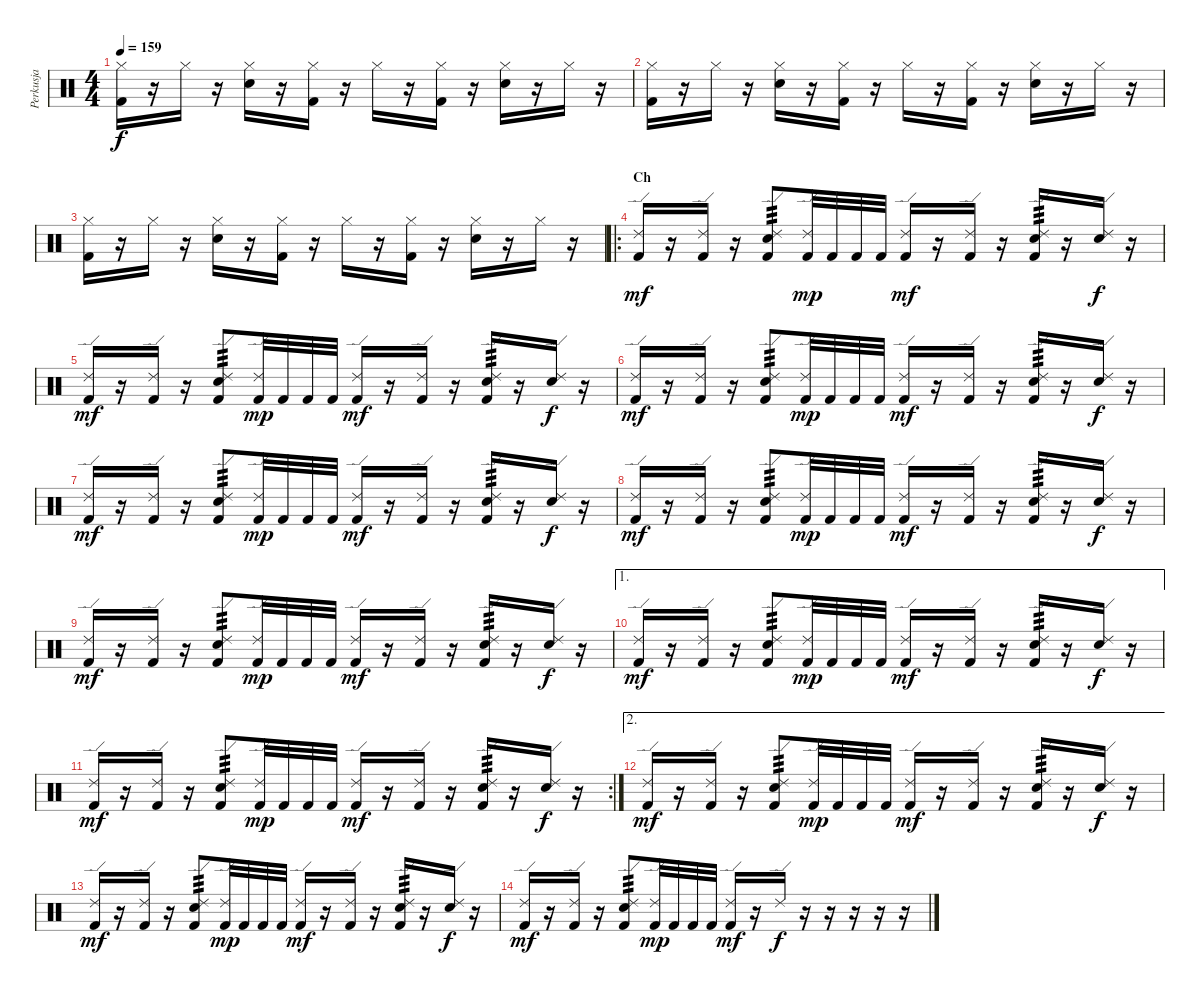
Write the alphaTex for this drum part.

\track ("Perkusja" "Perkusja") {instrument percussion}
\staff {score}
\articulation defaults
\ts (4 4)
\tempo 159
\clef neutral
\ks c
("Hi-Hat (closed)" "Kick (hit) 2").16{dy f} r.16 "Hi-Hat (closed)".16 r.16 ("Hi-Hat (closed)" "Electric Snare (hit)").16 r.16 ("Hi-Hat (closed)" "Kick (hit) 2").16 r.16 "Hi-Hat (closed)".16 r.16 ("Hi-Hat (closed)" "Kick (hit) 2").16 r.16 ("Hi-Hat (closed)" "Electric Snare (hit)").16 r.16 "Hi-Hat (closed)".16 r.16 |
("Hi-Hat (closed)" "Kick (hit) 2").16 r.16 "Hi-Hat (closed)".16 r.16 ("Hi-Hat (closed)" "Electric Snare (hit)").16 r.16 ("Hi-Hat (closed)" "Kick (hit) 2").16 r.16 "Hi-Hat (closed)".16 r.16 ("Hi-Hat (closed)" "Kick (hit) 2").16 r.16 ("Hi-Hat (closed)" "Electric Snare (hit)").16 r.16 "Hi-Hat (closed)".16 r.16 |
("Hi-Hat (closed)" "Kick (hit) 2").16 r.16 "Hi-Hat (closed)".16 r.16 ("Hi-Hat (closed)" "Electric Snare (hit)").16 r.16 ("Hi-Hat (closed)" "Kick (hit) 2").16 r.16 "Hi-Hat (closed)".16 r.16 ("Hi-Hat (closed)" "Kick (hit) 2").16 r.16 ("Hi-Hat (closed)" "Electric Snare (hit)").16 r.16 "Hi-Hat (closed)".16 r.16 |
\ro
\section ("" "Ch")
("Ride (edge) 2" "Kick (hit) 2").16{dy mf} r.16 ("Ride (edge) 2" "Kick (hit) 2").16 r.16 ("Ride (edge) 2" "Electric Snare (hit)" "Kick (hit) 2").8{tp 3} ("Ride (edge) 2" "Kick (hit) 2").32{dy mp} "Kick (hit) 2".32 "Kick (hit) 2".32 "Kick (hit) 2".32 ("Ride (edge) 2" "Kick (hit) 2").16{dy mf} r.16 ("Ride (edge) 2" "Kick (hit) 2").16 r.16 ("Ride (edge) 2" "Electric Snare (hit)" "Kick (hit) 2").16{tp 3} r.16 ("Ride (edge) 2" "Electric Snare (hit)").16{dy f} r.16 |
("Ride (edge) 2" "Kick (hit) 2").16{dy mf} r.16 ("Ride (edge) 2" "Kick (hit) 2").16 r.16 ("Ride (edge) 2" "Electric Snare (hit)" "Kick (hit) 2").8{tp 3} ("Ride (edge) 2" "Kick (hit) 2").32{dy mp} "Kick (hit) 2".32 "Kick (hit) 2".32 "Kick (hit) 2".32 ("Ride (edge) 2" "Kick (hit) 2").16{dy mf} r.16 ("Ride (edge) 2" "Kick (hit) 2").16 r.16 ("Ride (edge) 2" "Electric Snare (hit)" "Kick (hit) 2").16{tp 3} r.16 ("Ride (edge) 2" "Electric Snare (hit)").16{dy f} r.16 |
("Ride (edge) 2" "Kick (hit) 2").16{dy mf} r.16 ("Ride (edge) 2" "Kick (hit) 2").16 r.16 ("Ride (edge) 2" "Electric Snare (hit)" "Kick (hit) 2").8{tp 3} ("Ride (edge) 2" "Kick (hit) 2").32{dy mp} "Kick (hit) 2".32 "Kick (hit) 2".32 "Kick (hit) 2".32 ("Ride (edge) 2" "Kick (hit) 2").16{dy mf} r.16 ("Ride (edge) 2" "Kick (hit) 2").16 r.16 ("Ride (edge) 2" "Electric Snare (hit)" "Kick (hit) 2").16{tp 3} r.16 ("Ride (edge) 2" "Electric Snare (hit)").16{dy f} r.16 |
("Ride (edge) 2" "Kick (hit) 2").16{dy mf} r.16 ("Ride (edge) 2" "Kick (hit) 2").16 r.16 ("Ride (edge) 2" "Electric Snare (hit)" "Kick (hit) 2").8{tp 3} ("Ride (edge) 2" "Kick (hit) 2").32{dy mp} "Kick (hit) 2".32 "Kick (hit) 2".32 "Kick (hit) 2".32 ("Ride (edge) 2" "Kick (hit) 2").16{dy mf} r.16 ("Ride (edge) 2" "Kick (hit) 2").16 r.16 ("Ride (edge) 2" "Electric Snare (hit)" "Kick (hit) 2").16{tp 3} r.16 ("Ride (edge) 2" "Electric Snare (hit)").16{dy f} r.16 |
("Ride (edge) 2" "Kick (hit) 2").16{dy mf} r.16 ("Ride (edge) 2" "Kick (hit) 2").16 r.16 ("Ride (edge) 2" "Electric Snare (hit)" "Kick (hit) 2").8{tp 3} ("Ride (edge) 2" "Kick (hit) 2").32{dy mp} "Kick (hit) 2".32 "Kick (hit) 2".32 "Kick (hit) 2".32 ("Ride (edge) 2" "Kick (hit) 2").16{dy mf} r.16 ("Ride (edge) 2" "Kick (hit) 2").16 r.16 ("Ride (edge) 2" "Electric Snare (hit)" "Kick (hit) 2").16{tp 3} r.16 ("Ride (edge) 2" "Electric Snare (hit)").16{dy f} r.16 |
("Ride (edge) 2" "Kick (hit) 2").16{dy mf} r.16 ("Ride (edge) 2" "Kick (hit) 2").16 r.16 ("Ride (edge) 2" "Electric Snare (hit)" "Kick (hit) 2").8{tp 3} ("Ride (edge) 2" "Kick (hit) 2").32{dy mp} "Kick (hit) 2".32 "Kick (hit) 2".32 "Kick (hit) 2".32 ("Ride (edge) 2" "Kick (hit) 2").16{dy mf} r.16 ("Ride (edge) 2" "Kick (hit) 2").16 r.16 ("Ride (edge) 2" "Electric Snare (hit)" "Kick (hit) 2").16{tp 3} r.16 ("Ride (edge) 2" "Electric Snare (hit)").16{dy f} r.16 |
\ae 1
("Ride (edge) 2" "Kick (hit) 2").16{dy mf} r.16 ("Ride (edge) 2" "Kick (hit) 2").16 r.16 ("Ride (edge) 2" "Electric Snare (hit)" "Kick (hit) 2").8{tp 3} ("Ride (edge) 2" "Kick (hit) 2").32{dy mp} "Kick (hit) 2".32 "Kick (hit) 2".32 "Kick (hit) 2".32 ("Ride (edge) 2" "Kick (hit) 2").16{dy mf} r.16 ("Ride (edge) 2" "Kick (hit) 2").16 r.16 ("Ride (edge) 2" "Electric Snare (hit)" "Kick (hit) 2").16{tp 3} r.16 ("Ride (edge) 2" "Electric Snare (hit)").16{dy f} r.16 |
\rc 2
("Ride (edge) 2" "Kick (hit) 2").16{dy mf} r.16 ("Ride (edge) 2" "Kick (hit) 2").16 r.16 ("Ride (edge) 2" "Electric Snare (hit)" "Kick (hit) 2").8{tp 3} ("Ride (edge) 2" "Kick (hit) 2").32{dy mp} "Kick (hit) 2".32 "Kick (hit) 2".32 "Kick (hit) 2".32 ("Ride (edge) 2" "Kick (hit) 2").16{dy mf} r.16 ("Ride (edge) 2" "Kick (hit) 2").16 r.16 ("Ride (edge) 2" "Electric Snare (hit)" "Kick (hit) 2").16{tp 3} r.16 ("Ride (edge) 2" "Electric Snare (hit)").16{dy f} r.16 |
\ae 2
("Ride (edge) 2" "Kick (hit) 2").16{dy mf} r.16 ("Ride (edge) 2" "Kick (hit) 2").16 r.16 ("Ride (edge) 2" "Electric Snare (hit)" "Kick (hit) 2").8{tp 3} ("Ride (edge) 2" "Kick (hit) 2").32{dy mp} "Kick (hit) 2".32 "Kick (hit) 2".32 "Kick (hit) 2".32 ("Ride (edge) 2" "Kick (hit) 2").16{dy mf} r.16 ("Ride (edge) 2" "Kick (hit) 2").16 r.16 ("Ride (edge) 2" "Electric Snare (hit)" "Kick (hit) 2").16{tp 3} r.16 ("Ride (edge) 2" "Electric Snare (hit)").16{dy f} r.16 |
("Ride (edge) 2" "Kick (hit) 2").16{dy mf} r.16 ("Ride (edge) 2" "Kick (hit) 2").16 r.16 ("Ride (edge) 2" "Electric Snare (hit)" "Kick (hit) 2").8{tp 3} ("Ride (edge) 2" "Kick (hit) 2").32{dy mp} "Kick (hit) 2".32 "Kick (hit) 2".32 "Kick (hit) 2".32 ("Ride (edge) 2" "Kick (hit) 2").16{dy mf} r.16 ("Ride (edge) 2" "Kick (hit) 2").16 r.16 ("Ride (edge) 2" "Electric Snare (hit)" "Kick (hit) 2").16{tp 3} r.16 ("Ride (edge) 2" "Electric Snare (hit)").16{dy f} r.16 |
("Ride (edge) 2" "Kick (hit) 2").16{dy mf} r.16 ("Ride (edge) 2" "Kick (hit) 2").16 r.16 ("Ride (edge) 2" "Electric Snare (hit)" "Kick (hit) 2").8{tp 3} ("Ride (edge) 2" "Kick (hit) 2").32{dy mp} "Kick (hit) 2".32 "Kick (hit) 2".32 "Kick (hit) 2".32 ("Ride (edge) 2" "Kick (hit) 2").16{dy mf} r.16 "Ride (edge) 2".16{dy f} r.16 r.16 r.16 r.16 r.16
